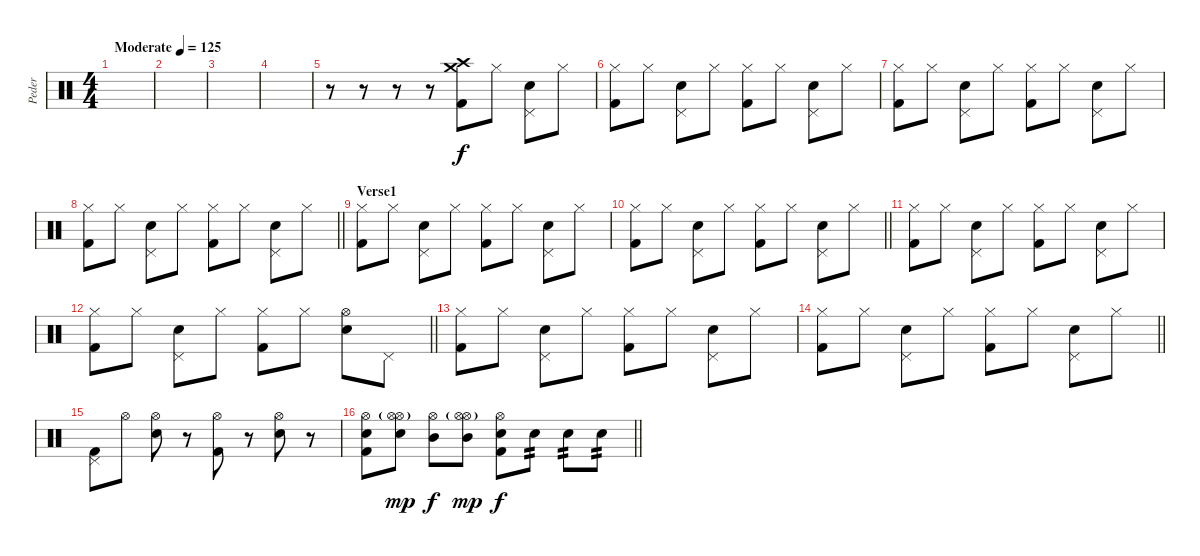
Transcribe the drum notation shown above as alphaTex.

\track ("Peder" "Peder") {instrument percussion}
\staff {score}
\articulation defaults
\ts (4 4)
\tempo (125 "Moderate")
\clef neutral
\ks c
|
|
|
|
r.8 r.8 r.8 r.8 ("Crash medium (hit)" "Crash high (hit)" "Kick (hit) 2").8 "Hi-Hat (closed)".8 ("Pedal Hi-Hat (hit)" "Electric Snare (hit)").8 "Hi-Hat (closed)".8 |
("Hi-Hat (closed)" "Kick (hit) 2").8 "Hi-Hat (closed)".8 ("Pedal Hi-Hat (hit)" "Electric Snare (hit)").8 "Hi-Hat (closed)".8 ("Hi-Hat (closed)" "Kick (hit) 2").8 "Hi-Hat (closed)".8 ("Pedal Hi-Hat (hit)" "Electric Snare (hit)").8 "Hi-Hat (closed)".8 |
("Hi-Hat (closed)" "Kick (hit) 2").8 "Hi-Hat (closed)".8 ("Pedal Hi-Hat (hit)" "Electric Snare (hit)").8 "Hi-Hat (closed)".8 ("Hi-Hat (closed)" "Kick (hit) 2").8 "Hi-Hat (closed)".8 ("Pedal Hi-Hat (hit)" "Electric Snare (hit)").8 "Hi-Hat (closed)".8 |
\barLineRight lightlight
("Hi-Hat (closed)" "Kick (hit) 2").8 "Hi-Hat (closed)".8 ("Pedal Hi-Hat (hit)" "Electric Snare (hit)").8 "Hi-Hat (closed)".8 ("Hi-Hat (closed)" "Kick (hit) 2").8 "Hi-Hat (closed)".8 ("Pedal Hi-Hat (hit)" "Electric Snare (hit)").8 "Hi-Hat (closed)".8 |
\section ("" "Verse1")
("Hi-Hat (closed)" "Kick (hit) 2").8 "Hi-Hat (closed)".8 ("Pedal Hi-Hat (hit)" "Electric Snare (hit)").8 "Hi-Hat (closed)".8 ("Hi-Hat (closed)" "Kick (hit) 2").8 "Hi-Hat (closed)".8 ("Pedal Hi-Hat (hit)" "Electric Snare (hit)").8 "Hi-Hat (closed)".8 |
\barLineRight lightlight
("Hi-Hat (closed)" "Kick (hit) 2").8 "Hi-Hat (closed)".8 ("Pedal Hi-Hat (hit)" "Electric Snare (hit)").8 "Hi-Hat (closed)".8 ("Hi-Hat (closed)" "Kick (hit) 2").8 "Hi-Hat (closed)".8 ("Pedal Hi-Hat (hit)" "Electric Snare (hit)").8 "Hi-Hat (closed)".8 |
("Hi-Hat (closed)" "Kick (hit) 2").8 "Hi-Hat (closed)".8 ("Pedal Hi-Hat (hit)" "Electric Snare (hit)").8 "Hi-Hat (closed)".8 ("Hi-Hat (closed)" "Kick (hit) 2").8 "Hi-Hat (closed)".8 ("Pedal Hi-Hat (hit)" "Electric Snare (hit)").8 "Hi-Hat (closed)".8 |
\barLineRight lightlight
("Hi-Hat (closed)" "Kick (hit) 2").8 "Hi-Hat (closed)".8 ("Pedal Hi-Hat (hit)" "Electric Snare (hit)").8 "Hi-Hat (closed)".8 ("Hi-Hat (closed)" "Kick (hit) 2").8 "Hi-Hat (closed)".8 ("Hi-Hat (open)" "Electric Snare (hit)").8 "Pedal Hi-Hat (hit)".8 |
("Hi-Hat (closed)" "Kick (hit) 2").8 "Hi-Hat (closed)".8 ("Pedal Hi-Hat (hit)" "Electric Snare (hit)").8 "Hi-Hat (closed)".8 ("Hi-Hat (closed)" "Kick (hit) 2").8 "Hi-Hat (closed)".8 ("Pedal Hi-Hat (hit)" "Electric Snare (hit)").8 "Hi-Hat (closed)".8 |
\barLineRight lightlight
("Hi-Hat (closed)" "Kick (hit) 2").8 "Hi-Hat (closed)".8 ("Pedal Hi-Hat (hit)" "Electric Snare (hit)").8 "Hi-Hat (closed)".8 ("Hi-Hat (closed)" "Kick (hit) 2").8 "Hi-Hat (closed)".8 ("Pedal Hi-Hat (hit)" "Electric Snare (hit)").8 "Hi-Hat (closed)".8 |
("Pedal Hi-Hat (hit)" "Kick (hit) 2").8 "Hi-Hat (open)".8 ("Hi-Hat (open)" "Electric Snare (hit)").8 r.8 ("Hi-Hat (open)" "Kick (hit) 2").8 r.8 ("Hi-Hat (open)" "Electric Snare (hit)").8 r.8 |
\barLineRight lightlight
("Hi-Hat (open)" "Electric Snare (hit)" "Kick (hit) 2").8 ("Hi-Hat (open)"{g} "Hi-Hat (open)"{g} "Electric Snare (hit)").8{dy mp} ("Hi-Hat (open)" "Mid Tom (hit)").8{dy f} ("Hi-Hat (open)"{g} "Hi-Hat (open)"{g} "Mid Tom (hit)").8{dy mp} ("Hi-Hat (open)" "Electric Snare (hit)" "Kick (hit) 2").8{dy f} "Electric Snare (hit)".8{tp 2} "Electric Snare (hit)".8{tp 2} "Electric Snare (hit)".8{tp 2}
